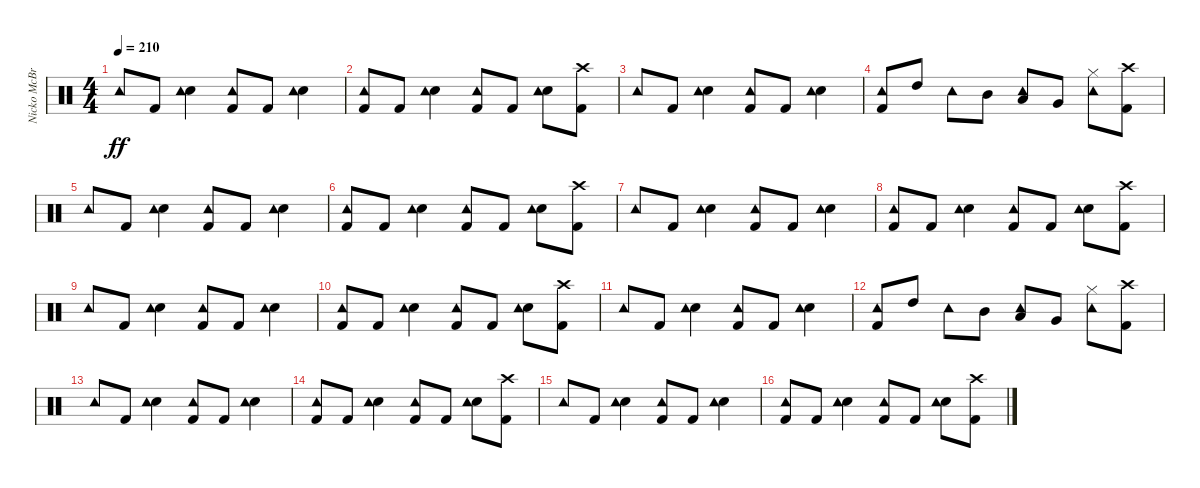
\track ("Nicko McBrain" "Nicko McBr") {instrument percussion}
\staff {score}
\articulation defaults
\ts (4 4)
\tempo 210
\clef neutral
\ks c "Tambourine (hit)".8{dy ff} "Kick (hit) 2".8
("Snare (hit) 2" "Tambourine (hit)").4 ("Kick (hit) 2" "Tambourine (hit)").8 "Kick (hit) 2".8 ("Snare (hit) 2" "Tambourine (hit)").4 |
("Kick (hit) 2" "Tambourine (hit)").8 "Kick (hit) 2".8 ("Snare (hit) 2" "Tambourine (hit)").4 ("Kick (hit) 2" "Tambourine (hit)").8 "Kick (hit) 2".8 ("Snare (hit) 2" "Tambourine (hit)").8 ("Kick (hit) 2" "Crash high (hit)").8 |
"Tambourine (hit)".8 "Kick (hit) 2".8 ("Snare (hit) 2" "Tambourine (hit)").4 ("Kick (hit) 2" "Tambourine (hit)").8 "Kick (hit) 2".8 ("Snare (hit) 2" "Tambourine (hit)").4 |
("Kick (hit) 2" "Tambourine (hit)").8 "High Tom (hit)".8 "Tambourine (hit)".8 "Mid Tom (hit)".8 ("Low Tom (hit)" "Tambourine (hit)").8 "Very Low Tom (hit)".8 ("Hi-Hat (closed)" "Tambourine (hit)").8 ("Kick (hit) 2" "Crash high (hit)").8 |
"Tambourine (hit)".8 "Kick (hit) 2".8 ("Snare (hit) 2" "Tambourine (hit)").4 ("Kick (hit) 2" "Tambourine (hit)").8 "Kick (hit) 2".8 ("Snare (hit) 2" "Tambourine (hit)").4 |
("Kick (hit) 2" "Tambourine (hit)").8 "Kick (hit) 2".8 ("Snare (hit) 2" "Tambourine (hit)").4 ("Kick (hit) 2" "Tambourine (hit)").8 "Kick (hit) 2".8 ("Snare (hit) 2" "Tambourine (hit)").8 ("Kick (hit) 2" "Crash high (hit)").8 |
"Tambourine (hit)".8 "Kick (hit) 2".8 ("Snare (hit) 2" "Tambourine (hit)").4 ("Kick (hit) 2" "Tambourine (hit)").8 "Kick (hit) 2".8 ("Snare (hit) 2" "Tambourine (hit)").4 |
("Kick (hit) 2" "Tambourine (hit)").8 "Kick (hit) 2".8 ("Snare (hit) 2" "Tambourine (hit)").4 ("Kick (hit) 2" "Tambourine (hit)").8 "Kick (hit) 2".8 ("Snare (hit) 2" "Tambourine (hit)").8 ("Kick (hit) 2" "Crash high (hit)").8 |
"Tambourine (hit)".8 "Kick (hit) 2".8 ("Snare (hit) 2" "Tambourine (hit)").4 ("Kick (hit) 2" "Tambourine (hit)").8 "Kick (hit) 2".8 ("Snare (hit) 2" "Tambourine (hit)").4 |
("Kick (hit) 2" "Tambourine (hit)").8 "Kick (hit) 2".8 ("Snare (hit) 2" "Tambourine (hit)").4 ("Kick (hit) 2" "Tambourine (hit)").8 "Kick (hit) 2".8 ("Snare (hit) 2" "Tambourine (hit)").8 ("Kick (hit) 2" "Crash high (hit)").8 |
"Tambourine (hit)".8 "Kick (hit) 2".8 ("Snare (hit) 2" "Tambourine (hit)").4 ("Kick (hit) 2" "Tambourine (hit)").8 "Kick (hit) 2".8 ("Snare (hit) 2" "Tambourine (hit)").4 |
("Kick (hit) 2" "Tambourine (hit)").8 "High Tom (hit)".8 "Tambourine (hit)".8 "Mid Tom (hit)".8 ("Low Tom (hit)" "Tambourine (hit)").8 "Very Low Tom (hit)".8 ("Hi-Hat (closed)" "Tambourine (hit)").8 ("Kick (hit) 2" "Crash high (hit)").8 |
"Tambourine (hit)".8 "Kick (hit) 2".8 ("Snare (hit) 2" "Tambourine (hit)").4 ("Kick (hit) 2" "Tambourine (hit)").8 "Kick (hit) 2".8 ("Snare (hit) 2" "Tambourine (hit)").4 |
("Kick (hit) 2" "Tambourine (hit)").8 "Kick (hit) 2".8 ("Snare (hit) 2" "Tambourine (hit)").4 ("Kick (hit) 2" "Tambourine (hit)").8 "Kick (hit) 2".8 ("Snare (hit) 2" "Tambourine (hit)").8 ("Kick (hit) 2" "Crash high (hit)").8 |
"Tambourine (hit)".8 "Kick (hit) 2".8 ("Snare (hit) 2" "Tambourine (hit)").4 ("Kick (hit) 2" "Tambourine (hit)").8 "Kick (hit) 2".8 ("Snare (hit) 2" "Tambourine (hit)").4 |
("Kick (hit) 2" "Tambourine (hit)").8 "Kick (hit) 2".8 ("Snare (hit) 2" "Tambourine (hit)").4 ("Kick (hit) 2" "Tambourine (hit)").8 "Kick (hit) 2".8 ("Snare (hit) 2" "Tambourine (hit)").8 ("Kick (hit) 2" "Crash high (hit)").8
